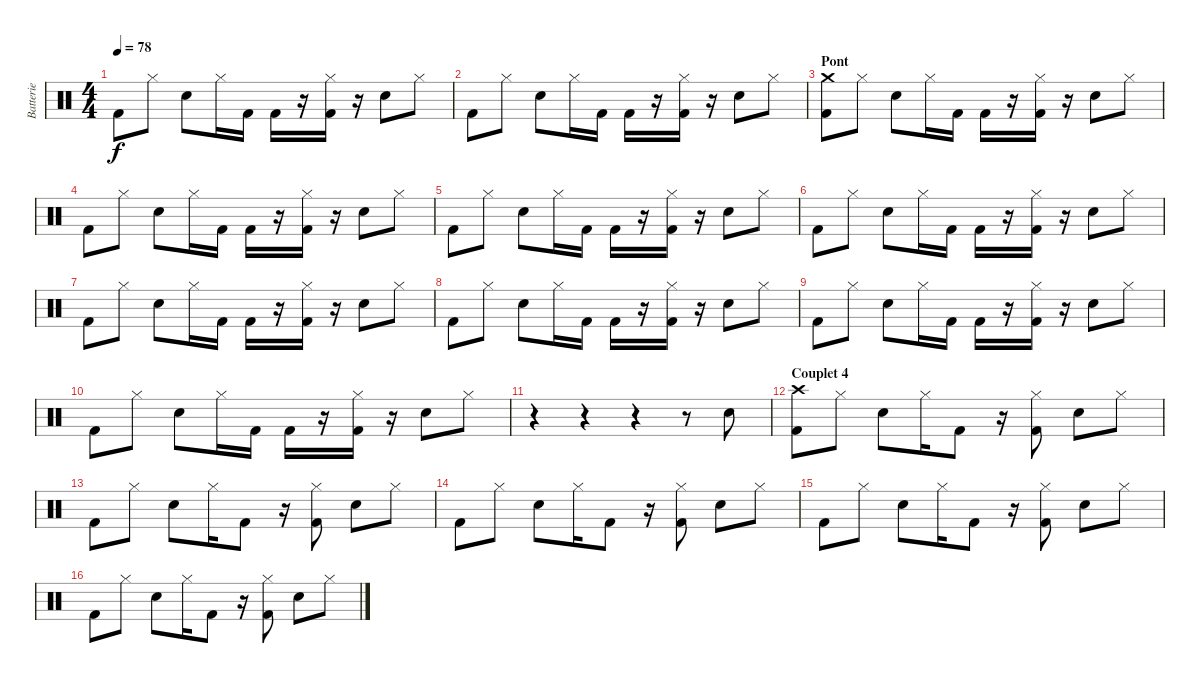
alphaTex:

\track ("Batterie" "Batterie") {instrument percussion}
\staff {score}
\articulation defaults
\ts (4 4)
\tempo 78
\clef neutral
\ks c "Kick (hit) 2".8{dy f} "Hi-Hat (closed)".8 "Electric Snare (hit)".8 "Hi-Hat (closed)".16 "Kick (hit) 2".16 "Kick (hit) 2".16
r.16 ("Hi-Hat (closed)" "Kick (hit) 2").16 r.16 "Electric Snare (hit)".8 "Hi-Hat (closed)".8 |
"Kick (hit) 2".8 "Hi-Hat (closed)".8 "Electric Snare (hit)".8 "Hi-Hat (closed)".16 "Kick (hit) 2".16 "Kick (hit) 2".16 r.16 ("Hi-Hat (closed)" "Kick (hit) 2").16 r.16 "Electric Snare (hit)".8 "Hi-Hat (closed)".8 |
\section ("" "Pont")
("Crash medium (hit)" "Kick (hit) 2").8 "Hi-Hat (closed)".8 "Electric Snare (hit)".8 "Hi-Hat (closed)".16 "Kick (hit) 2".16 "Kick (hit) 2".16 r.16 ("Hi-Hat (closed)" "Kick (hit) 2").16 r.16 "Electric Snare (hit)".8 "Hi-Hat (closed)".8 |
"Kick (hit) 2".8 "Hi-Hat (closed)".8 "Electric Snare (hit)".8 "Hi-Hat (closed)".16 "Kick (hit) 2".16 "Kick (hit) 2".16 r.16 ("Hi-Hat (closed)" "Kick (hit) 2").16 r.16 "Electric Snare (hit)".8 "Hi-Hat (closed)".8 |
"Kick (hit) 2".8 "Hi-Hat (closed)".8 "Electric Snare (hit)".8 "Hi-Hat (closed)".16 "Kick (hit) 2".16 "Kick (hit) 2".16 r.16 ("Hi-Hat (closed)" "Kick (hit) 2").16 r.16 "Electric Snare (hit)".8 "Hi-Hat (closed)".8 |
"Kick (hit) 2".8 "Hi-Hat (closed)".8 "Electric Snare (hit)".8 "Hi-Hat (closed)".16 "Kick (hit) 2".16 "Kick (hit) 2".16 r.16 ("Hi-Hat (closed)" "Kick (hit) 2").16 r.16 "Electric Snare (hit)".8 "Hi-Hat (closed)".8 |
"Kick (hit) 2".8 "Hi-Hat (closed)".8 "Electric Snare (hit)".8 "Hi-Hat (closed)".16 "Kick (hit) 2".16 "Kick (hit) 2".16 r.16 ("Hi-Hat (closed)" "Kick (hit) 2").16 r.16 "Electric Snare (hit)".8 "Hi-Hat (closed)".8 |
"Kick (hit) 2".8 "Hi-Hat (closed)".8 "Electric Snare (hit)".8 "Hi-Hat (closed)".16 "Kick (hit) 2".16 "Kick (hit) 2".16 r.16 ("Hi-Hat (closed)" "Kick (hit) 2").16 r.16 "Electric Snare (hit)".8 "Hi-Hat (closed)".8 |
"Kick (hit) 2".8 "Hi-Hat (closed)".8 "Electric Snare (hit)".8 "Hi-Hat (closed)".16 "Kick (hit) 2".16 "Kick (hit) 2".16 r.16 ("Hi-Hat (closed)" "Kick (hit) 2").16 r.16 "Electric Snare (hit)".8 "Hi-Hat (closed)".8 |
"Kick (hit) 2".8 "Hi-Hat (closed)".8 "Electric Snare (hit)".8 "Hi-Hat (closed)".16 "Kick (hit) 2".16 "Kick (hit) 2".16 r.16 ("Hi-Hat (closed)" "Kick (hit) 2").16 r.16 "Electric Snare (hit)".8 "Hi-Hat (closed)".8 |
r.4 r.4 r.4 r.8 "Electric Snare (hit)".8 |
\section ("" "Couplet 4")
("Crash high (hit)" "Kick (hit) 2").8 "Hi-Hat (closed)".8 "Electric Snare (hit)".8 "Hi-Hat (closed)".16 "Kick (hit) 2".8 r.16 ("Hi-Hat (closed)" "Kick (hit) 2").8 "Electric Snare (hit)".8 "Hi-Hat (closed)".8 |
"Kick (hit) 2".8 "Hi-Hat (closed)".8 "Electric Snare (hit)".8 "Hi-Hat (closed)".16 "Kick (hit) 2".8 r.16 ("Hi-Hat (closed)" "Kick (hit) 2").8 "Electric Snare (hit)".8 "Hi-Hat (closed)".8 |
"Kick (hit) 2".8 "Hi-Hat (closed)".8 "Electric Snare (hit)".8 "Hi-Hat (closed)".16 "Kick (hit) 2".8 r.16 ("Hi-Hat (closed)" "Kick (hit) 2").8 "Electric Snare (hit)".8 "Hi-Hat (closed)".8 |
"Kick (hit) 2".8 "Hi-Hat (closed)".8 "Electric Snare (hit)".8 "Hi-Hat (closed)".16 "Kick (hit) 2".8 r.16 ("Hi-Hat (closed)" "Kick (hit) 2").8 "Electric Snare (hit)".8 "Hi-Hat (closed)".8 |
"Kick (hit) 2".8 "Hi-Hat (closed)".8 "Electric Snare (hit)".8 "Hi-Hat (closed)".16 "Kick (hit) 2".8 r.16 ("Hi-Hat (closed)" "Kick (hit) 2").8 "Electric Snare (hit)".8 "Hi-Hat (closed)".8
